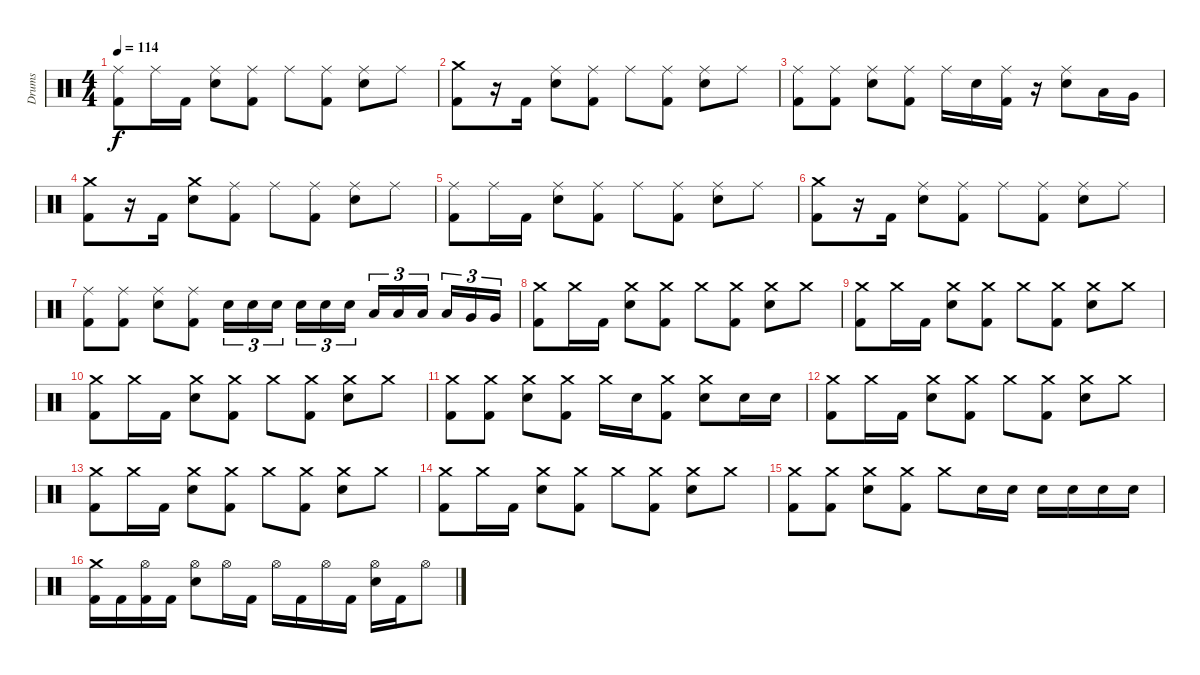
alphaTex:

\track ("Drums" "Drums") {instrument percussion}
\staff {score}
\articulation defaults
\ts (4 4)
\tempo 114
\clef neutral
\ks c
("Ride (middle)" "Kick (hit) 2").8{dy f} "Ride (middle)".16 "Kick (hit) 2".16 ("Ride (middle)" "Electric Snare (hit)").8 ("Ride (middle)" "Kick (hit) 2").8 "Ride (middle)".8 ("Ride (middle)" "Kick (hit) 2").8 ("Ride (middle)" "Electric Snare (hit)").8 "Ride (middle)".8 |
("Crash medium (hit)" "Kick (hit) 2").8 r.16 "Kick (hit) 2".16 ("Ride (middle)" "Electric Snare (hit)").8 ("Ride (middle)" "Kick (hit) 2").8 "Ride (middle)".8 ("Ride (middle)" "Kick (hit) 2").8 ("Ride (middle)" "Electric Snare (hit)").8 "Ride (middle)".8 |
("Ride (middle)" "Kick (hit) 2").8 ("Ride (middle)" "Kick (hit) 2").8 ("Ride (middle)" "Electric Snare (hit)").8 ("Ride (middle)" "Kick (hit) 2").8 "Ride (middle)".16 "Electric Snare (hit)".16 ("Ride (middle)" "Kick (hit) 2").16 r.16 ("Ride (middle)" "Electric Snare (hit)").8 "Low Tom (hit)".16 "Very Low Tom (hit)".16 |
("Crash medium (hit)" "Kick (hit) 2").8 r.16 "Kick (hit) 2".16 ("Crash medium (hit)" "Electric Snare (hit)").8 ("Ride (middle)" "Kick (hit) 2").8 "Ride (middle)".8 ("Ride (middle)" "Kick (hit) 2").8 ("Ride (middle)" "Electric Snare (hit)").8 "Ride (middle)".8 |
("Ride (middle)" "Kick (hit) 2").8 "Ride (middle)".16 "Kick (hit) 2".16 ("Ride (middle)" "Electric Snare (hit)").8 ("Ride (middle)" "Kick (hit) 2").8 "Ride (middle)".8 ("Ride (middle)" "Kick (hit) 2").8 ("Ride (middle)" "Electric Snare (hit)").8 "Ride (middle)".8 |
("Crash medium (hit)" "Kick (hit) 2").8 r.16 "Kick (hit) 2".16 ("Ride (middle)" "Electric Snare (hit)").8 ("Ride (middle)" "Kick (hit) 2").8 "Ride (middle)".8 ("Ride (middle)" "Kick (hit) 2").8 ("Ride (middle)" "Electric Snare (hit)").8 "Ride (middle)".8 |
("Ride (middle)" "Kick (hit) 2").8 ("Ride (middle)" "Kick (hit) 2").8 ("Ride (middle)" "Electric Snare (hit)").8 ("Ride (middle)" "Kick (hit) 2").8 "Electric Snare (hit)".16{tu (3 2)} "Electric Snare (hit)".16{tu (3 2)} "Electric Snare (hit)".16{tu (3 2) beam splitsecondary} "Electric Snare (hit)".16{tu (3 2)} "Electric Snare (hit)".16{tu (3 2)} "Electric Snare (hit)".16{tu (3 2)} "Low Tom (hit)".16{tu (3 2)} "Low Tom (hit)".16{tu (3 2)} "Low Tom (hit)".16{tu (3 2) beam splitsecondary} "Low Tom (hit)".16{tu (3 2)} "Very Low Tom (hit)".16{tu (3 2)} "Very Low Tom (hit)".16{tu (3 2)} |
("Crash medium (hit)" "Kick (hit) 2").8 "Crash medium (hit)".16 "Kick (hit) 2".16 ("Crash medium (hit)" "Electric Snare (hit)").8 ("Crash medium (hit)" "Kick (hit) 2").8 "Crash medium (hit)".8 ("Crash medium (hit)" "Kick (hit) 2").8 ("Crash medium (hit)" "Electric Snare (hit)").8 "Crash medium (hit)".8 |
("Crash medium (hit)" "Kick (hit) 2").8 "Crash medium (hit)".16 "Kick (hit) 2".16 ("Crash medium (hit)" "Electric Snare (hit)").8 ("Crash medium (hit)" "Kick (hit) 2").8 "Crash medium (hit)".8 ("Crash medium (hit)" "Kick (hit) 2").8 ("Crash medium (hit)" "Electric Snare (hit)").8 "Crash medium (hit)".8 |
("Crash medium (hit)" "Kick (hit) 2").8 "Crash medium (hit)".16 "Kick (hit) 2".16 ("Crash medium (hit)" "Electric Snare (hit)").8 ("Crash medium (hit)" "Kick (hit) 2").8 "Crash medium (hit)".8 ("Crash medium (hit)" "Kick (hit) 2").8 ("Crash medium (hit)" "Electric Snare (hit)").8 "Crash medium (hit)".8 |
("Crash medium (hit)" "Kick (hit) 2").8 ("Crash medium (hit)" "Kick (hit) 2").8 ("Crash medium (hit)" "Electric Snare (hit)").8 ("Crash medium (hit)" "Kick (hit) 2").8 "Crash medium (hit)".16 "Electric Snare (hit)".16 ("Crash medium (hit)" "Kick (hit) 2").8 ("Crash medium (hit)" "Electric Snare (hit)").8 "Electric Snare (hit)".16 "Electric Snare (hit)".16 |
("Crash medium (hit)" "Kick (hit) 2").8 "Crash medium (hit)".16 "Kick (hit) 2".16 ("Crash medium (hit)" "Electric Snare (hit)").8 ("Crash medium (hit)" "Kick (hit) 2").8 "Crash medium (hit)".8 ("Crash medium (hit)" "Kick (hit) 2").8 ("Crash medium (hit)" "Electric Snare (hit)").8 "Crash medium (hit)".8 |
("Crash medium (hit)" "Kick (hit) 2").8 "Crash medium (hit)".16 "Kick (hit) 2".16 ("Crash medium (hit)" "Electric Snare (hit)").8 ("Crash medium (hit)" "Kick (hit) 2").8 "Crash medium (hit)".8 ("Crash medium (hit)" "Kick (hit) 2").8 ("Crash medium (hit)" "Electric Snare (hit)").8 "Crash medium (hit)".8 |
("Crash medium (hit)" "Kick (hit) 2").8 "Crash medium (hit)".16 "Kick (hit) 2".16 ("Crash medium (hit)" "Electric Snare (hit)").8 ("Crash medium (hit)" "Kick (hit) 2").8 "Crash medium (hit)".8 ("Crash medium (hit)" "Kick (hit) 2").8 ("Crash medium (hit)" "Electric Snare (hit)").8 "Crash medium (hit)".8 |
("Crash medium (hit)" "Kick (hit) 2").8 ("Crash medium (hit)" "Kick (hit) 2").8 ("Crash medium (hit)" "Electric Snare (hit)").8 ("Crash medium (hit)" "Kick (hit) 2").8 "Crash medium (hit)".8 "Electric Snare (hit)".16 "Electric Snare (hit)".16 "Electric Snare (hit)".16 "Electric Snare (hit)".16 "Electric Snare (hit)".16 "Electric Snare (hit)".16 |
("Crash medium (hit)" "Kick (hit) 2").16 "Kick (hit) 2".16 ("Hi-Hat (open)" "Kick (hit) 2").16 "Kick (hit) 2".16 ("Hi-Hat (open)" "Electric Snare (hit)").8 "Hi-Hat (open)".16 "Kick (hit) 2".16 "Hi-Hat (open)".16 "Kick (hit) 2".16 "Hi-Hat (open)".16 "Kick (hit) 2".16 ("Hi-Hat (open)" "Electric Snare (hit)").16 "Kick (hit) 2".16 "Hi-Hat (open)".8
